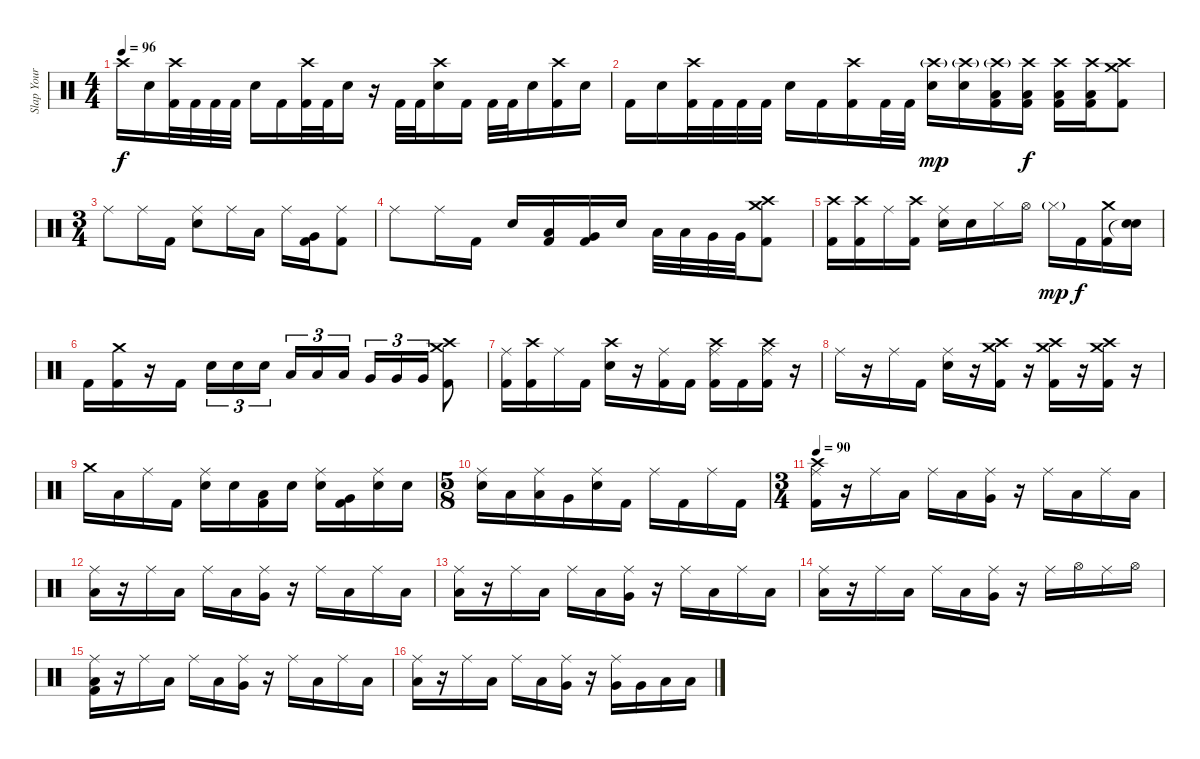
\track ("Slap Your Sticks" "Slap Your ") {instrument percussion}
\staff {score}
\articulation defaults
\ts (4 4)
\tempo 96
\clef neutral
\ks c "Crash high (hit)".16{dy f} "Snare (hit) 2".16
("Crash high (hit)" "Kick (hit) 2").32 "Kick (hit) 2".32 "Kick (hit) 2".32 "Kick (hit) 2".32 "Snare (hit) 2".16 "Kick (hit) 2".16 ("Crash high (hit)" "Kick (hit) 2").32 "Kick (hit) 2".32 "Snare (hit) 2".16 r.16 "Kick (hit) 2".32 "Kick (hit) 2".32 ("Crash high (hit)" "Snare (hit) 2").16 "Kick (hit) 2".16 "Kick (hit) 2".32 "Kick (hit) 2".32 "Snare (hit) 2".16 ("Crash high (hit)" "Kick (hit) 2").16 "Snare (hit) 2".16 |
"Kick (hit) 2".16 "Snare (hit) 2".16 ("Crash high (hit)" "Kick (hit) 2").32 "Kick (hit) 2".32 "Kick (hit) 2".32 "Kick (hit) 2".32 "Snare (hit) 2".16 "Kick (hit) 2".16 ("Crash high (hit)" "Kick (hit) 2").16 "Kick (hit) 2".32 "Kick (hit) 2".32 ("Crash high (hit)"{g} "Snare (hit) 2").16{dy mp} ("Crash high (hit)"{g} "Snare (hit) 2").16 ("Crash high (hit)"{g} "Low Tom (hit)" "Kick (hit) 2").16 ("Crash high (hit)" "Low Tom (hit)" "Kick (hit) 2").16{dy f} ("Crash high (hit)" "Low Tom (hit)" "Kick (hit) 2").16 ("Crash high (hit)" "Low Tom (hit)" "Kick (hit) 2").16 ("Crash medium (hit)" "Crash high (hit)" "Kick (hit) 2").8 |
\ts (3 4)
"Ride (middle)".8 "Ride (middle)".16 "Kick (hit) 2".16 ("Ride (middle)" "Snare (hit) 2").8 "Ride (middle)".16 "Low Tom (hit)".16 "Ride (middle)".16 ("Very Low Tom (hit)" "Kick (hit) 2").16 ("Ride (middle)" "Kick (hit) 2").8 |
"Ride (middle)".8 "Ride (middle)".16 "Kick (hit) 2".16 "Snare (hit) 2".16 ("Low Tom (hit)" "Kick (hit) 2").16 ("Very Low Tom (hit)" "Kick (hit) 2").16 "Snare (hit) 2".16 "Low Tom (hit)".32 "Low Tom (hit)".32 "Very Low Tom (hit)".32 "Very Low Tom (hit)".32 ("Crash medium (hit)" "Crash high (hit)" "Kick (hit) 2").8 |
("Crash high (hit)" "Kick (hit) 2").16 ("Crash high (hit)" "Kick (hit) 2").16 "Ride (middle)".16 ("Crash high (hit)" "Kick (hit) 2").16 ("Ride (middle)" "Snare (hit) 2").16 "Snare (hit) 2".16 "Hi-Hat (closed)".16 "Hi-Hat (open)".16 "Hi-Hat (closed)"{g}.16{dy mp} "Kick (hit) 2".16{dy f} ("Crash medium (hit)" "Kick (hit) 2").16 ("Snare (hit) 2" "Snare (hit)"{t}).16 |
"Kick (hit) 2".16 ("Crash medium (hit)" "Kick (hit) 2").16 r.16 "Kick (hit) 2".16 "Snare (hit) 2".16{tu (3 2)} "Snare (hit) 2".16{tu (3 2)} "Snare (hit) 2".16{tu (3 2)} "Low Tom (hit)".16{tu (3 2)} "Low Tom (hit)".16{tu (3 2)} "Low Tom (hit)".16{tu (3 2)} "Very Low Tom (hit)".16{tu (3 2)} "Very Low Tom (hit)".16{tu (3 2)} "Very Low Tom (hit)".16{tu (3 2)} ("Crash medium (hit)" "Crash high (hit)" "Kick (hit) 2").8 |
("Ride (middle)" "Kick (hit) 2").16 ("Crash high (hit)" "Kick (hit) 2").16 "Ride (middle)".16 "Kick (hit) 2".16 ("Crash high (hit)" "Snare (hit) 2").16 r.16 ("Ride (middle)" "Kick (hit) 2").16 "Kick (hit) 2".16 ("Crash high (hit)" "Ride (middle)" "Kick (hit) 2").16 "Kick (hit) 2".16 ("Crash high (hit)" "Ride (middle)" "Kick (hit) 2").16 r.16 |
"Ride (middle)".16 r.16 "Ride (middle)".16 "Kick (hit) 2".16 ("Ride (middle)" "Snare (hit) 2").16 r.16 ("Crash high (hit)" "Crash medium (hit)" "Kick (hit) 2").16 r.16 ("Crash high (hit)" "Crash medium (hit)" "Kick (hit) 2").16 r.16 ("Crash high (hit)" "Crash medium (hit)" "Kick (hit) 2").16 r.16 |
"Crash medium (hit)".16 "Low Tom (hit)".16 "Ride (middle)".16 "Kick (hit) 2".16 ("Ride (middle)" "Snare (hit) 2").16 "Snare (hit) 2".16 ("Low Tom (hit)" "Kick (hit) 2").16 "Snare (hit) 2".16 ("Ride (middle)" "Snare (hit) 2").16 ("Very Low Tom (hit)" "Kick (hit) 2").16 ("Ride (middle)" "Snare (hit) 2").16 "Snare (hit) 2".16 |
\ts (5 8)
("Ride (middle)" "Snare (hit) 2").16 "Low Tom (hit)".16 ("Ride (middle)" "Low Tom (hit)").16 "Very Low Tom (hit)".16 ("Ride (middle)" "Snare (hit) 2").16 "Kick (hit) 2".16 "Ride (middle)".16 "Kick (hit) 2".16 "Ride (middle)".16 "Kick (hit) 2".16 |
\ts (3 4)
\tempo 90
("Crash high (hit)" "Ride (middle)" "Kick (hit) 2").16 r.16 "Ride (middle)".16 "Low Floor Tom (hit)".16 "Ride (middle)".16 "Low Floor Tom (hit)".16 ("Ride (middle)" "Very Low Tom (hit)").16 r.16 "Ride (middle)".16 "Low Floor Tom (hit)".16 "Ride (middle)".16 "Low Floor Tom (hit)".16 |
("Ride (middle)" "Low Floor Tom (hit)").16 r.16 "Ride (middle)".16 "Low Floor Tom (hit)".16 "Ride (middle)".16 "Low Floor Tom (hit)".16 ("Ride (middle)" "Very Low Tom (hit)").16 r.16 "Ride (middle)".16 "Low Floor Tom (hit)".16 "Ride (middle)".16 "Low Floor Tom (hit)".16 |
("Ride (middle)" "Low Floor Tom (hit)").16 r.16 "Ride (middle)".16 "Low Floor Tom (hit)".16 "Ride (middle)".16 "Low Floor Tom (hit)".16 ("Ride (middle)" "Very Low Tom (hit)").16 r.16 "Ride (middle)".16 "Low Floor Tom (hit)".16 "Ride (middle)".16 "Low Floor Tom (hit)".16 |
("Ride (middle)" "Low Floor Tom (hit)").16 r.16 "Ride (middle)".16 "Low Floor Tom (hit)".16 "Ride (middle)".16 "Low Floor Tom (hit)".16 ("Ride (middle)" "Very Low Tom (hit)").16 r.16 "Ride (middle)".16 "Hi-Hat (open)".16 "Ride (middle)".16 "Hi-Hat (open)".16 |
("Ride (middle)" "Low Floor Tom (hit)" "Kick (hit) 2").16 r.16 "Ride (middle)".16 "Low Floor Tom (hit)".16 "Ride (middle)".16 "Low Floor Tom (hit)".16 ("Ride (middle)" "Very Low Tom (hit)").16 r.16 "Ride (middle)".16 "Low Floor Tom (hit)".16 "Ride (middle)".16 "Low Floor Tom (hit)".16 |
("Ride (middle)" "Low Floor Tom (hit)").16 r.16 "Ride (middle)".16 "Low Floor Tom (hit)".16 "Ride (middle)".16 "Low Floor Tom (hit)".16 ("Ride (middle)" "Very Low Tom (hit)").16 r.16 ("Ride (middle)" "Very Low Tom (hit)").16 "Very Low Tom (hit)".16 "Low Floor Tom (hit)".16 "Low Floor Tom (hit)".16
